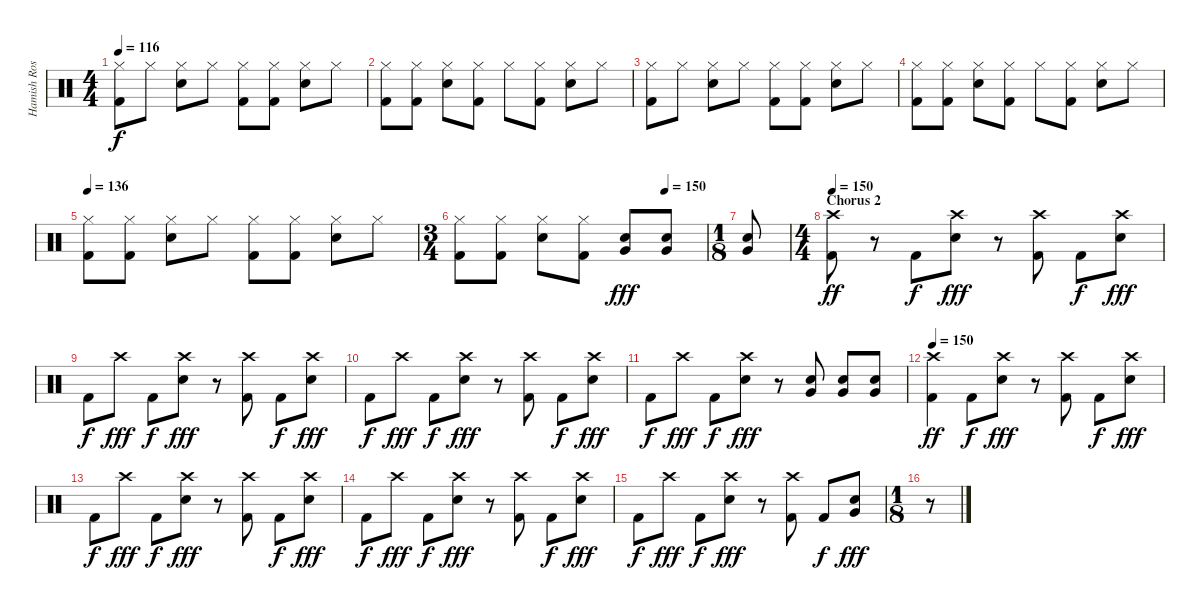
\track ("Hamish Rosser" "Hamish Ros") {instrument percussion}
\staff {score}
\articulation defaults
\ts (4 4)
\tempo 116
\clef neutral
\ks c
("Hi-Hat (closed)" "Kick (hit) 2").8{dy f} "Hi-Hat (closed)".8 ("Hi-Hat (closed)" "Electric Snare (hit)").8 "Hi-Hat (closed)".8 ("Hi-Hat (closed)" "Kick (hit) 2").8 ("Hi-Hat (closed)" "Kick (hit) 2").8 ("Hi-Hat (closed)" "Electric Snare (hit)").8 "Hi-Hat (closed)".8 |
("Hi-Hat (closed)" "Kick (hit) 2").8 ("Hi-Hat (closed)" "Kick (hit) 2").8 ("Hi-Hat (closed)" "Electric Snare (hit)").8 ("Hi-Hat (closed)" "Kick (hit) 2").8 "Hi-Hat (closed)".8 ("Hi-Hat (closed)" "Kick (hit) 2").8 ("Hi-Hat (closed)" "Electric Snare (hit)").8 "Hi-Hat (closed)".8 |
("Hi-Hat (closed)" "Kick (hit) 2").8 "Hi-Hat (closed)".8 ("Hi-Hat (closed)" "Electric Snare (hit)").8 "Hi-Hat (closed)".8 ("Hi-Hat (closed)" "Kick (hit) 2").8 ("Hi-Hat (closed)" "Kick (hit) 2").8 ("Hi-Hat (closed)" "Electric Snare (hit)").8 "Hi-Hat (closed)".8 |
("Hi-Hat (closed)" "Kick (hit) 2").8 ("Hi-Hat (closed)" "Kick (hit) 2").8 ("Hi-Hat (closed)" "Electric Snare (hit)").8 ("Hi-Hat (closed)" "Kick (hit) 2").8 "Hi-Hat (closed)".8 ("Hi-Hat (closed)" "Kick (hit) 2").8 ("Hi-Hat (closed)" "Electric Snare (hit)").8 "Hi-Hat (closed)".8 |
\tempo 136
("Hi-Hat (closed)" "Kick (hit) 2").8 ("Hi-Hat (closed)" "Kick (hit) 2").8 ("Hi-Hat (closed)" "Electric Snare (hit)").8 "Hi-Hat (closed)".8 ("Hi-Hat (closed)" "Kick (hit) 2").8 ("Hi-Hat (closed)" "Kick (hit) 2").8 ("Hi-Hat (closed)" "Electric Snare (hit)").8 "Hi-Hat (closed)".8 |
\ts (3 4)
\tempo (150 0.8333333333333334)
("Hi-Hat (closed)" "Kick (hit) 2").8 ("Hi-Hat (closed)" "Kick (hit) 2").8 ("Hi-Hat (closed)" "Electric Snare (hit)").8 ("Hi-Hat (closed)" "Kick (hit) 2").8 ("Electric Snare (hit)" "Very Low Tom (hit)").8{dy fff} ("Electric Snare (hit)" "Very Low Tom (hit)").8 |
\ts (1 8)
("Electric Snare (hit)" "Very Low Tom (hit)").8 |
\ts (4 4)
\section ("" "Chorus 2")
\tempo 150
("Crash high (hit)" "Kick (hit) 2").8{dy ff} r.8 "Kick (hit) 2".8{dy f} ("Crash high (hit)" "Electric Snare (hit)").8{dy fff} r.8 ("Crash high (hit)" "Kick (hit) 2").8 "Kick (hit) 2".8{dy f} ("Crash high (hit)" "Electric Snare (hit)").8{dy fff} |
"Kick (hit) 2".8{dy f} "Crash high (hit)".8{dy fff} "Kick (hit) 2".8{dy f} ("Crash high (hit)" "Electric Snare (hit)").8{dy fff} r.8 ("Crash high (hit)" "Kick (hit) 2").8 "Kick (hit) 2".8{dy f} ("Crash high (hit)" "Electric Snare (hit)").8{dy fff} |
"Kick (hit) 2".8{dy f} "Crash high (hit)".8{dy fff} "Kick (hit) 2".8{dy f} ("Crash high (hit)" "Electric Snare (hit)").8{dy fff} r.8 ("Crash high (hit)" "Kick (hit) 2").8 "Kick (hit) 2".8{dy f} ("Crash high (hit)" "Electric Snare (hit)").8{dy fff} |
"Kick (hit) 2".8{dy f} "Crash high (hit)".8{dy fff} "Kick (hit) 2".8{dy f} ("Crash high (hit)" "Electric Snare (hit)").8{dy fff} r.8 ("Electric Snare (hit)" "Very Low Tom (hit)").8 ("Electric Snare (hit)" "Very Low Tom (hit)").8 ("Electric Snare (hit)" "Very Low Tom (hit)").8 |
\tempo 150
("Crash high (hit)" "Kick (hit) 2").4{dy ff} "Kick (hit) 2".8{dy f} ("Crash high (hit)" "Electric Snare (hit)").8{dy fff} r.8 ("Crash high (hit)" "Kick (hit) 2").8 "Kick (hit) 2".8{dy f} ("Crash high (hit)" "Electric Snare (hit)").8{dy fff} |
"Kick (hit) 2".8{dy f} "Crash high (hit)".8{dy fff} "Kick (hit) 2".8{dy f} ("Crash high (hit)" "Electric Snare (hit)").8{dy fff} r.8 ("Crash high (hit)" "Kick (hit) 2").8 "Kick (hit) 2".8{dy f} ("Crash high (hit)" "Electric Snare (hit)").8{dy fff} |
"Kick (hit) 2".8{dy f} "Crash high (hit)".8{dy fff} "Kick (hit) 2".8{dy f} ("Crash high (hit)" "Electric Snare (hit)").8{dy fff} r.8 ("Crash high (hit)" "Kick (hit) 2").8 "Kick (hit) 2".8{dy f} ("Crash high (hit)" "Electric Snare (hit)").8{dy fff} |
"Kick (hit) 2".8{dy f} "Crash high (hit)".8{dy fff} "Kick (hit) 2".8{dy f} ("Crash high (hit)" "Electric Snare (hit)").8{dy fff} r.8 ("Crash high (hit)" "Kick (hit) 2").8 "Kick (hit) 2".8{dy f} ("Electric Snare (hit)" "Very Low Tom (hit)").8{dy fff} |
\ts (1 8)
r.8
